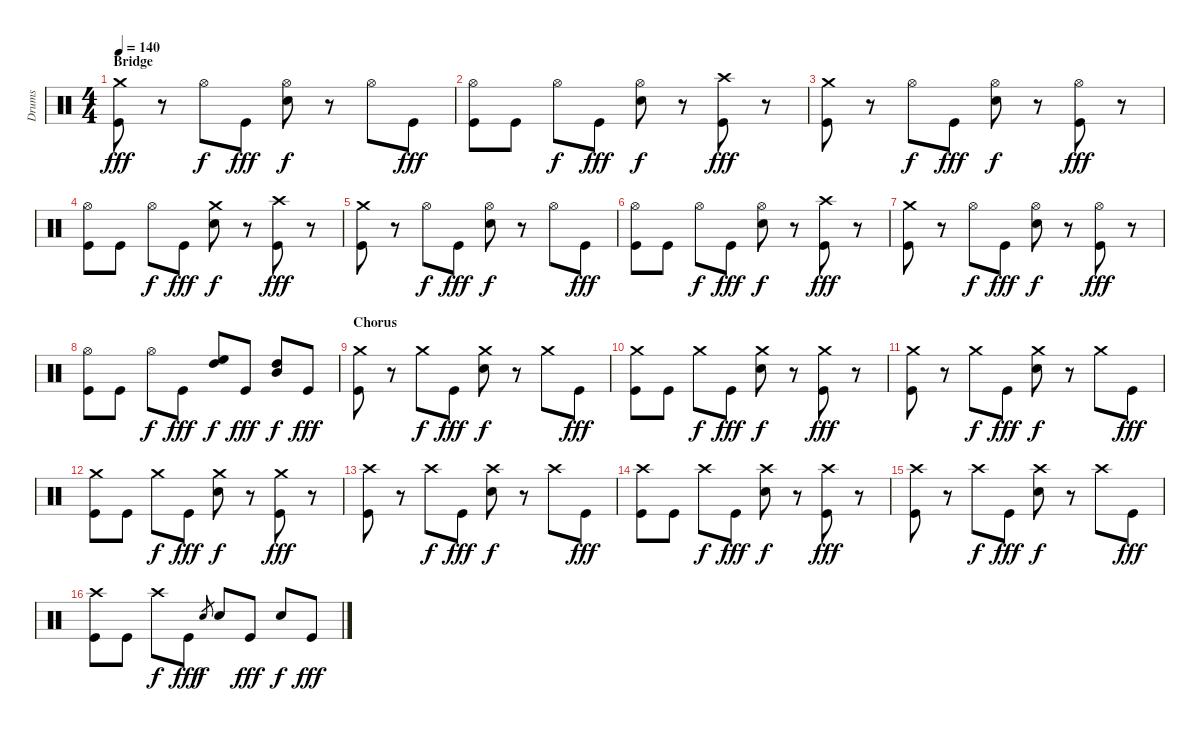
\track ("Drums" "Drums") {instrument percussion}
\staff {score}
\articulation defaults
\ts (4 4)
\section ("" "Bridge")
\tempo 140
\clef neutral
\ks c
("Crash medium (hit)" "Kick (hit)").8{dy fff} r.8 "Hi-Hat (open)".8{dy f} "Kick (hit)".8{dy fff} ("Hi-Hat (open)" "Electric Snare (hit)").8{dy f} r.8 "Hi-Hat (open)".8 "Kick (hit)".8{dy fff} |
("Hi-Hat (open)" "Kick (hit)").8 "Kick (hit)".8 "Hi-Hat (open)".8{dy f} "Kick (hit)".8{dy fff} ("Hi-Hat (open)" "Electric Snare (hit)").8{dy f} r.8 ("Crash high (hit)" "Kick (hit)").8{dy fff} r.8 |
("Crash medium (hit)" "Kick (hit)").8 r.8 "Hi-Hat (open)".8{dy f} "Kick (hit)".8{dy fff} ("Hi-Hat (open)" "Electric Snare (hit)").8{dy f} r.8 ("Hi-Hat (open)" "Kick (hit)").8{dy fff} r.8 |
("Hi-Hat (open)" "Kick (hit)").8 "Kick (hit)".8 "Hi-Hat (open)".8{dy f} "Kick (hit)".8{dy fff} ("Crash medium (hit)" "Electric Snare (hit)").8{dy f} r.8 ("Crash high (hit)" "Kick (hit)").8{dy fff} r.8 |
("Crash medium (hit)" "Kick (hit)").8 r.8 "Hi-Hat (open)".8{dy f} "Kick (hit)".8{dy fff} ("Hi-Hat (open)" "Electric Snare (hit)").8{dy f} r.8 "Hi-Hat (open)".8 "Kick (hit)".8{dy fff} |
("Hi-Hat (open)" "Kick (hit)").8 "Kick (hit)".8 "Hi-Hat (open)".8{dy f} "Kick (hit)".8{dy fff} ("Hi-Hat (open)" "Electric Snare (hit)").8{dy f} r.8 ("Crash high (hit)" "Kick (hit)").8{dy fff} r.8 |
("Crash medium (hit)" "Kick (hit)").8 r.8 "Hi-Hat (open)".8{dy f} "Kick (hit)".8{dy fff} ("Hi-Hat (open)" "Electric Snare (hit)").8{dy f} r.8 ("Hi-Hat (open)" "Kick (hit)").8{dy fff} r.8 |
("Hi-Hat (open)" "Kick (hit)").8 "Kick (hit)".8 "Hi-Hat (open)".8{dy f} "Kick (hit)".8{dy fff} ("High Floor Tom (hit)" "High Tom (hit)").8{bu 240 dy f} "Kick (hit)".8{dy fff} ("High Tom (hit)" "Mid Tom (hit)").8{bu 240 dy f} "Kick (hit)".8{dy fff} |
\section ("" "Chorus")
("Crash medium (hit)" "Kick (hit)").8 r.8 "Crash medium (hit)".8{dy f} "Kick (hit)".8{dy fff} ("Crash medium (hit)" "Electric Snare (hit)").8{dy f} r.8 "Crash medium (hit)".8 "Kick (hit)".8{dy fff} |
("Crash medium (hit)" "Kick (hit)").8 "Kick (hit)".8 "Crash medium (hit)".8{dy f} "Kick (hit)".8{dy fff} ("Crash medium (hit)" "Electric Snare (hit)").8{dy f} r.8 ("Crash medium (hit)" "Kick (hit)").8{dy fff} r.8 |
("Crash medium (hit)" "Kick (hit)").8 r.8 "Crash medium (hit)".8{dy f} "Kick (hit)".8{dy fff} ("Crash medium (hit)" "Electric Snare (hit)").8{dy f} r.8 "Crash medium (hit)".8 "Kick (hit)".8{dy fff} |
("Crash medium (hit)" "Kick (hit)").8 "Kick (hit)".8 "Crash medium (hit)".8{dy f} "Kick (hit)".8{dy fff} ("Crash medium (hit)" "Electric Snare (hit)").8{dy f} r.8 ("Crash medium (hit)" "Kick (hit)").8{dy fff} r.8 |
("Crash high (hit)" "Kick (hit)").8 r.8 "Crash high (hit)".8{dy f} "Kick (hit)".8{dy fff} ("Crash high (hit)" "Electric Snare (hit)").8{dy f} r.8 "Crash high (hit)".8 "Kick (hit)".8{dy fff} |
("Crash high (hit)" "Kick (hit)").8 "Kick (hit)".8 "Crash high (hit)".8{dy f} "Kick (hit)".8{dy fff} ("Crash high (hit)" "Electric Snare (hit)").8{dy f} r.8 ("Crash high (hit)" "Kick (hit)").8{dy fff} r.8 |
("Crash high (hit)" "Kick (hit)").8 r.8 "Crash high (hit)".8{dy f} "Kick (hit)".8{dy fff} ("Crash high (hit)" "Electric Snare (hit)").8{dy f} r.8 "Crash high (hit)".8 "Kick (hit)".8{dy fff} |
("Crash high (hit)" "Kick (hit)").8 "Kick (hit)".8 "Crash high (hit)".8{dy f} "Kick (hit)".8{dy fff} "Electric Snare (hit)".8{gr dy f} "Electric Snare (hit)".8 "Kick (hit)".8{dy fff} "Electric Snare (hit)".8{dy f} "Kick (hit)".8{dy fff}
